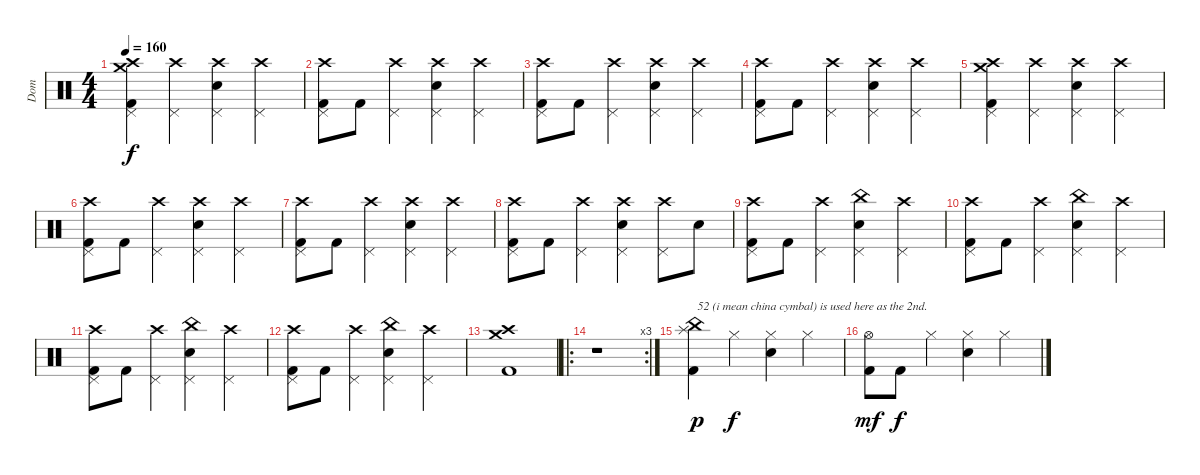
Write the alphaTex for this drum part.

\track ("Dom" "Dom") {instrument percussion}
\staff {score}
\articulation defaults
\ts (4 4)
\tempo 160
\clef neutral
\ks c
("Crash high (hit)" "Kick (hit) 2" "Crash medium (hit)" "Pedal Hi-Hat (hit)").4{dy f} ("Crash high (hit)" "Pedal Hi-Hat (hit)").4 ("Crash high (hit)" "Snare (hit) 2" "Pedal Hi-Hat (hit)").4 ("Crash high (hit)" "Pedal Hi-Hat (hit)").4 |
("Crash high (hit)" "Kick (hit) 2" "Pedal Hi-Hat (hit)").8 "Kick (hit) 2".8 ("Crash high (hit)" "Pedal Hi-Hat (hit)").4 ("Crash high (hit)" "Snare (hit) 2" "Pedal Hi-Hat (hit)").4 ("Crash high (hit)" "Pedal Hi-Hat (hit)").4 |
("Crash high (hit)" "Kick (hit) 2" "Pedal Hi-Hat (hit)").8 "Kick (hit) 2".8 ("Crash high (hit)" "Pedal Hi-Hat (hit)").4 ("Crash high (hit)" "Snare (hit) 2" "Pedal Hi-Hat (hit)").4 ("Crash high (hit)" "Pedal Hi-Hat (hit)").4 |
("Crash high (hit)" "Kick (hit) 2" "Pedal Hi-Hat (hit)").8 "Kick (hit) 2".8 ("Crash high (hit)" "Pedal Hi-Hat (hit)").4 ("Crash high (hit)" "Snare (hit) 2" "Pedal Hi-Hat (hit)").4 ("Crash high (hit)" "Pedal Hi-Hat (hit)").4 |
("Crash high (hit)" "Kick (hit) 2" "Crash medium (hit)" "Pedal Hi-Hat (hit)").4 ("Crash high (hit)" "Pedal Hi-Hat (hit)").4 ("Crash high (hit)" "Snare (hit) 2" "Pedal Hi-Hat (hit)").4 ("Crash high (hit)" "Pedal Hi-Hat (hit)").4 |
("Crash high (hit)" "Kick (hit) 2" "Pedal Hi-Hat (hit)").8 "Kick (hit) 2".8 ("Crash high (hit)" "Pedal Hi-Hat (hit)").4 ("Crash high (hit)" "Snare (hit) 2" "Pedal Hi-Hat (hit)").4 ("Crash high (hit)" "Pedal Hi-Hat (hit)").4 |
("Crash high (hit)" "Kick (hit) 2" "Pedal Hi-Hat (hit)").8 "Kick (hit) 2".8 ("Crash high (hit)" "Pedal Hi-Hat (hit)").4 ("Crash high (hit)" "Snare (hit) 2" "Pedal Hi-Hat (hit)").4 ("Crash high (hit)" "Pedal Hi-Hat (hit)").4 |
("Crash high (hit)" "Kick (hit) 2" "Pedal Hi-Hat (hit)").8 "Kick (hit) 2".8 ("Crash high (hit)" "Pedal Hi-Hat (hit)").4 ("Crash high (hit)" "Snare (hit) 2" "Pedal Hi-Hat (hit)").4 ("Crash high (hit)" "Pedal Hi-Hat (hit)").8 "Snare (hit) 2".8 |
("Crash high (hit)" "Kick (hit) 2" "Pedal Hi-Hat (hit)").8 "Kick (hit) 2".8 ("Crash high (hit)" "Pedal Hi-Hat (hit)").4 ("China (hit)" "Snare (hit) 2" "Pedal Hi-Hat (hit)").4 ("Crash high (hit)" "Pedal Hi-Hat (hit)").4 |
("Crash high (hit)" "Kick (hit) 2" "Pedal Hi-Hat (hit)").8 "Kick (hit) 2".8 ("Crash high (hit)" "Pedal Hi-Hat (hit)").4 ("China (hit)" "Snare (hit) 2" "Pedal Hi-Hat (hit)").4 ("Crash high (hit)" "Pedal Hi-Hat (hit)").4 |
("Crash high (hit)" "Kick (hit) 2" "Pedal Hi-Hat (hit)").8 "Kick (hit) 2".8 ("Crash high (hit)" "Pedal Hi-Hat (hit)").4 ("China (hit)" "Snare (hit) 2" "Pedal Hi-Hat (hit)").4 ("Crash high (hit)" "Pedal Hi-Hat (hit)").4 |
("Crash high (hit)" "Kick (hit) 2" "Pedal Hi-Hat (hit)").8 "Kick (hit) 2".8 ("Crash high (hit)" "Pedal Hi-Hat (hit)").4 ("China (hit)" "Snare (hit) 2" "Pedal Hi-Hat (hit)").4 ("Crash high (hit)" "Pedal Hi-Hat (hit)").4 |
("Crash high (hit)" "Kick (hit) 2" "Crash medium (hit)").1 |
\ro
\rc 3
r.1 |
("Splash (hit)" "Kick (hit) 2" "China (hit)").4{txt "52 (i mean china cymbal) is used here as the 2nd." dy p} "Hi-Hat (closed)".4{dy f} ("Hi-Hat (closed)" "Snare (hit) 2").4 "Hi-Hat (closed)".4 |
("Hi-Hat (open)" "Kick (hit) 2").8{dy mf} "Kick (hit) 2".8{dy f} "Hi-Hat (closed)".4 ("Hi-Hat (closed)" "Snare (hit) 2").4 "Hi-Hat (closed)".4
